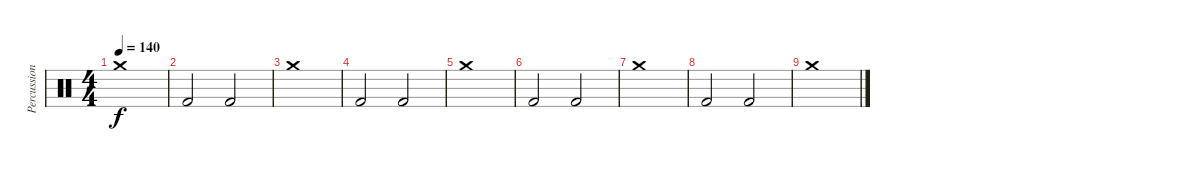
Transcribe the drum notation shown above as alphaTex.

\track ("Percussion" "Percussion") {instrument percussion}
\staff {score}
\articulation defaults
\ts (4 4)
\tempo 140
\clef neutral
\ks c "Crash medium (hit)".1{dy f}
|
"Kick (hit) 2".2 "Kick (hit) 2".2 |
"Crash medium (hit)".1 |
"Kick (hit) 2".2 "Kick (hit) 2".2 |
"Crash medium (hit)".1 |
"Kick (hit) 2".2 "Kick (hit) 2".2 |
"Crash medium (hit)".1 |
"Kick (hit) 2".2 "Kick (hit) 2".2 |
"Crash medium (hit)".1
